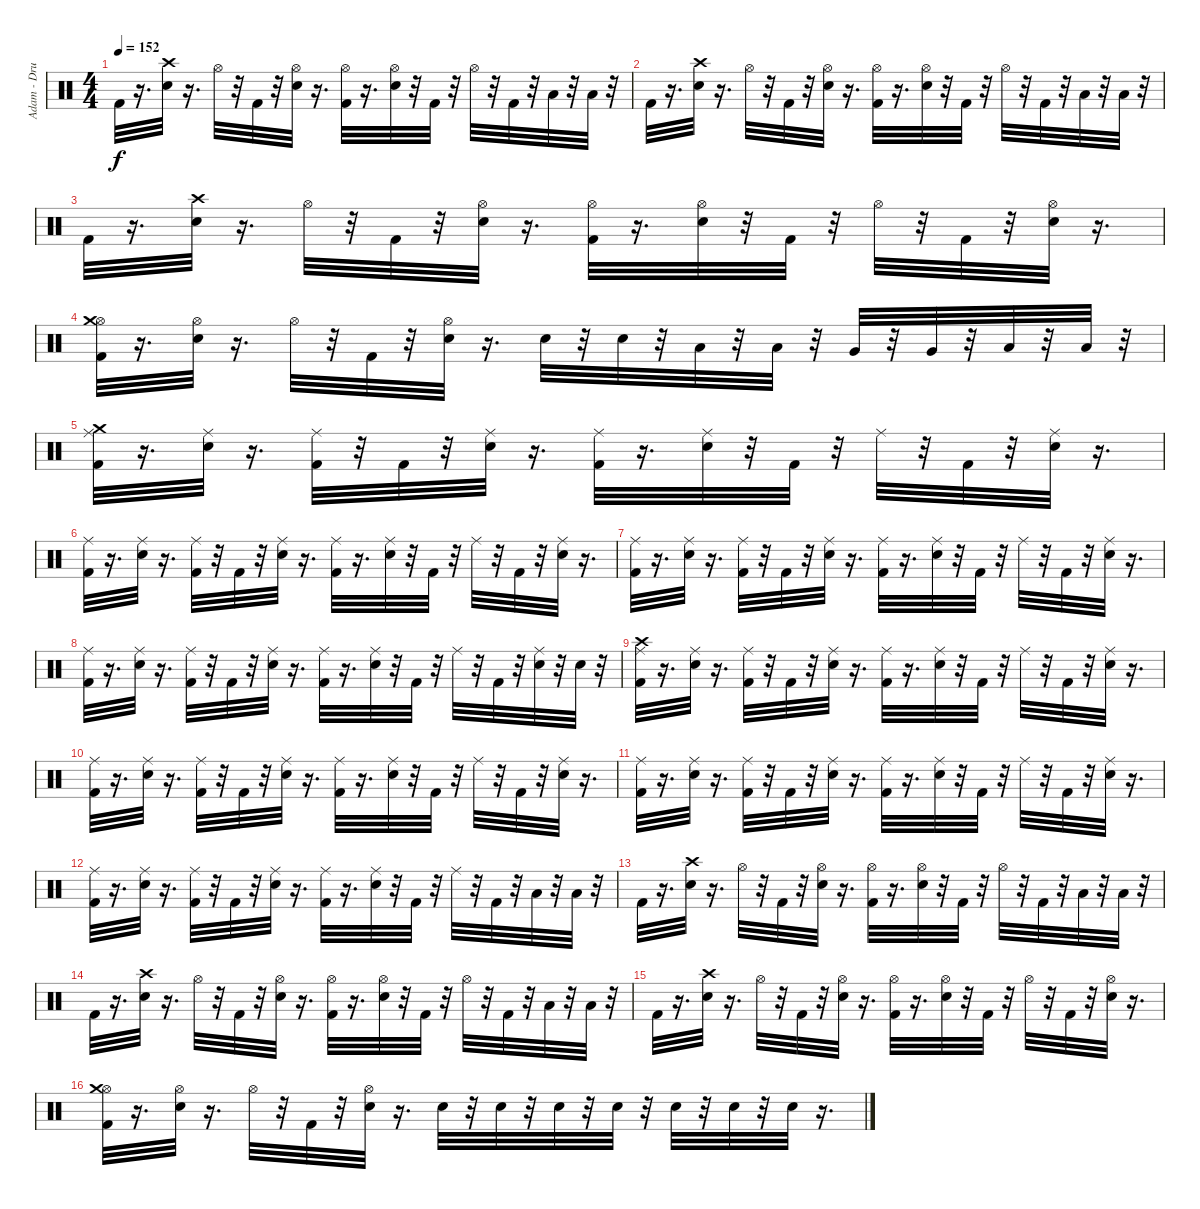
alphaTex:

\track ("Adam - Drums" "Adam - Dru") {instrument percussion}
\staff {score}
\articulation defaults
\ts (4 4)
\tempo 152
\clef neutral
\ks c "Kick (hit) 2".32{dy f}
r.16{d} ("Snare (hit) 2" "Crash high (hit)").32 r.16{d} "Hi-Hat (open)".32 r.32 "Kick (hit) 2".32 r.32 ("Snare (hit) 2" "Hi-Hat (open)").32 r.16{d} ("Kick (hit) 2" "Hi-Hat (open)").32 r.16{d} ("Snare (hit) 2" "Hi-Hat (open)").32 r.32 "Kick (hit) 2".32 r.32 "Hi-Hat (open)".32 r.32 "Kick (hit) 2".32 r.32 "Low Floor Tom (hit)".32 r.32 "Low Floor Tom (hit)".32 r.32 |
"Kick (hit) 2".32 r.16{d} ("Snare (hit) 2" "Crash high (hit)").32 r.16{d} "Hi-Hat (open)".32 r.32 "Kick (hit) 2".32 r.32 ("Snare (hit) 2" "Hi-Hat (open)").32 r.16{d} ("Kick (hit) 2" "Hi-Hat (open)").32 r.16{d} ("Snare (hit) 2" "Hi-Hat (open)").32 r.32 "Kick (hit) 2".32 r.32 "Hi-Hat (open)".32 r.32 "Kick (hit) 2".32 r.32 "Low Floor Tom (hit)".32 r.32 "Low Floor Tom (hit)".32 r.32 |
"Kick (hit) 2".32 r.16{d} ("Snare (hit) 2" "Crash high (hit)").32 r.16{d} "Hi-Hat (open)".32 r.32 "Kick (hit) 2".32 r.32 ("Snare (hit) 2" "Hi-Hat (open)").32 r.16{d} ("Kick (hit) 2" "Hi-Hat (open)").32 r.16{d} ("Snare (hit) 2" "Hi-Hat (open)").32 r.32 "Kick (hit) 2".32 r.32 "Hi-Hat (open)".32 r.32 "Kick (hit) 2".32 r.32 ("Snare (hit) 2" "Hi-Hat (open)").32 r.16{d} |
("Kick (hit) 2" "Hi-Hat (open)" "Crash medium (hit)").32 r.16{d} ("Snare (hit) 2" "Hi-Hat (open)").32 r.16{d} "Hi-Hat (open)".32 r.32 "Kick (hit) 2".32 r.32 ("Hi-Hat (open)" "Snare (hit) 2").32 r.16{d} "Snare (hit) 2".32 r.32 "Snare (hit) 2".32 r.32 "Low Tom (hit)".32 r.32 "Low Tom (hit)".32 r.32 "Very Low Tom (hit)".32 r.32 "Very Low Tom (hit)".32 r.32 "Low Floor Tom (hit)".32 r.32 "Low Floor Tom (hit)".32 r.32 |
("Ride (middle)" "Crash medium (hit)" "Kick (hit) 2").32 r.16{d} ("Ride (middle)" "Snare (hit) 2").32 r.16{d} ("Ride (middle)" "Kick (hit) 2").32 r.32 "Kick (hit) 2".32 r.32 ("Ride (middle)" "Snare (hit) 2").32 r.16{d} ("Ride (middle)" "Kick (hit) 2").32 r.16{d} ("Ride (middle)" "Snare (hit) 2").32 r.32 "Kick (hit) 2".32 r.32 "Ride (middle)".32 r.32 "Kick (hit) 2".32 r.32 ("Ride (middle)" "Snare (hit) 2").32 r.16{d} |
("Ride (middle)" "Kick (hit) 2").32 r.16{d} ("Ride (middle)" "Snare (hit) 2").32 r.16{d} ("Ride (middle)" "Kick (hit) 2").32 r.32 "Kick (hit) 2".32 r.32 ("Ride (middle)" "Snare (hit) 2").32 r.16{d} ("Ride (middle)" "Kick (hit) 2").32 r.16{d} ("Ride (middle)" "Snare (hit) 2").32 r.32 "Kick (hit) 2".32 r.32 "Ride (middle)".32 r.32 "Kick (hit) 2".32 r.32 ("Ride (middle)" "Snare (hit) 2").32 r.16{d} |
("Ride (middle)" "Kick (hit) 2").32 r.16{d} ("Ride (middle)" "Snare (hit) 2").32 r.16{d} ("Ride (middle)" "Kick (hit) 2").32 r.32 "Kick (hit) 2".32 r.32 ("Ride (middle)" "Snare (hit) 2").32 r.16{d} ("Ride (middle)" "Kick (hit) 2").32 r.16{d} ("Ride (middle)" "Snare (hit) 2").32 r.32 "Kick (hit) 2".32 r.32 "Ride (middle)".32 r.32 "Kick (hit) 2".32 r.32 ("Ride (middle)" "Snare (hit) 2").32 r.16{d} |
("Ride (middle)" "Kick (hit) 2").32 r.16{d} ("Ride (middle)" "Snare (hit) 2").32 r.16{d} ("Ride (middle)" "Kick (hit) 2").32 r.32 "Kick (hit) 2".32 r.32 ("Ride (middle)" "Snare (hit) 2").32 r.16{d} ("Ride (middle)" "Kick (hit) 2").32 r.16{d} ("Ride (middle)" "Snare (hit) 2").32 r.32 "Kick (hit) 2".32 r.32 "Ride (middle)".32 r.32 "Kick (hit) 2".32 r.32 ("Ride (middle)" "Snare (hit) 2").32 r.32 "Snare (hit) 2".32 r.32 |
("Crash high (hit)" "Ride (middle)" "Kick (hit) 2").32 r.16{d} ("Ride (middle)" "Snare (hit) 2").32 r.16{d} ("Ride (middle)" "Kick (hit) 2").32 r.32 "Kick (hit) 2".32 r.32 ("Ride (middle)" "Snare (hit) 2").32 r.16{d} ("Ride (middle)" "Kick (hit) 2").32 r.16{d} ("Ride (middle)" "Snare (hit) 2").32 r.32 "Kick (hit) 2".32 r.32 "Ride (middle)".32 r.32 "Kick (hit) 2".32 r.32 ("Ride (middle)" "Snare (hit) 2").32 r.16{d} |
("Ride (middle)" "Kick (hit) 2").32 r.16{d} ("Ride (middle)" "Snare (hit) 2").32 r.16{d} ("Ride (middle)" "Kick (hit) 2").32 r.32 "Kick (hit) 2".32 r.32 ("Ride (middle)" "Snare (hit) 2").32 r.16{d} ("Ride (middle)" "Kick (hit) 2").32 r.16{d} ("Ride (middle)" "Snare (hit) 2").32 r.32 "Kick (hit) 2".32 r.32 "Ride (middle)".32 r.32 "Kick (hit) 2".32 r.32 ("Ride (middle)" "Snare (hit) 2").32 r.16{d} |
("Ride (middle)" "Kick (hit) 2").32 r.16{d} ("Ride (middle)" "Snare (hit) 2").32 r.16{d} ("Ride (middle)" "Kick (hit) 2").32 r.32 "Kick (hit) 2".32 r.32 ("Ride (middle)" "Snare (hit) 2").32 r.16{d} ("Ride (middle)" "Kick (hit) 2").32 r.16{d} ("Ride (middle)" "Snare (hit) 2").32 r.32 "Kick (hit) 2".32 r.32 "Ride (middle)".32 r.32 "Kick (hit) 2".32 r.32 ("Ride (middle)" "Snare (hit) 2").32 r.16{d} |
("Ride (middle)" "Kick (hit) 2").32 r.16{d} ("Ride (middle)" "Snare (hit) 2").32 r.16{d} ("Ride (middle)" "Kick (hit) 2").32 r.32 "Kick (hit) 2".32 r.32 ("Ride (middle)" "Snare (hit) 2").32 r.16{d} ("Ride (middle)" "Kick (hit) 2").32 r.16{d} ("Ride (middle)" "Snare (hit) 2").32 r.32 "Kick (hit) 2".32 r.32 "Ride (middle)".32 r.32 "Kick (hit) 2".32 r.32 "Low Floor Tom (hit)".32 r.32 "Low Floor Tom (hit)".32 r.32 |
"Kick (hit) 2".32 r.16{d} ("Snare (hit) 2" "Crash high (hit)").32 r.16{d} "Hi-Hat (open)".32 r.32 "Kick (hit) 2".32 r.32 ("Snare (hit) 2" "Hi-Hat (open)").32 r.16{d} ("Kick (hit) 2" "Hi-Hat (open)").32 r.16{d} ("Snare (hit) 2" "Hi-Hat (open)").32 r.32 "Kick (hit) 2".32 r.32 "Hi-Hat (open)".32 r.32 "Kick (hit) 2".32 r.32 "Low Floor Tom (hit)".32 r.32 "Low Floor Tom (hit)".32 r.32 |
"Kick (hit) 2".32 r.16{d} ("Snare (hit) 2" "Crash high (hit)").32 r.16{d} "Hi-Hat (open)".32 r.32 "Kick (hit) 2".32 r.32 ("Snare (hit) 2" "Hi-Hat (open)").32 r.16{d} ("Kick (hit) 2" "Hi-Hat (open)").32 r.16{d} ("Snare (hit) 2" "Hi-Hat (open)").32 r.32 "Kick (hit) 2".32 r.32 "Hi-Hat (open)".32 r.32 "Kick (hit) 2".32 r.32 "Low Floor Tom (hit)".32 r.32 "Low Floor Tom (hit)".32 r.32 |
"Kick (hit) 2".32 r.16{d} ("Snare (hit) 2" "Crash high (hit)").32 r.16{d} "Hi-Hat (open)".32 r.32 "Kick (hit) 2".32 r.32 ("Snare (hit) 2" "Hi-Hat (open)").32 r.16{d} ("Kick (hit) 2" "Hi-Hat (open)").32 r.16{d} ("Snare (hit) 2" "Hi-Hat (open)").32 r.32 "Kick (hit) 2".32 r.32 "Hi-Hat (open)".32 r.32 "Kick (hit) 2".32 r.32 ("Snare (hit) 2" "Hi-Hat (open)").32 r.16{d} |
("Kick (hit) 2" "Hi-Hat (open)" "Crash medium (hit)").32 r.16{d} ("Snare (hit) 2" "Hi-Hat (open)").32 r.16{d} "Hi-Hat (open)".32 r.32 "Kick (hit) 2".32 r.32 ("Hi-Hat (open)" "Snare (hit) 2").32 r.16{d} "Snare (hit) 2".32 r.32 "Snare (hit) 2".32 r.32 "Snare (hit) 2".32 r.32 "Snare (hit) 2".32 r.32 "Snare (hit) 2".32 r.32 "Snare (hit) 2".32 r.32 "Snare (hit) 2".32 r.16{d}
